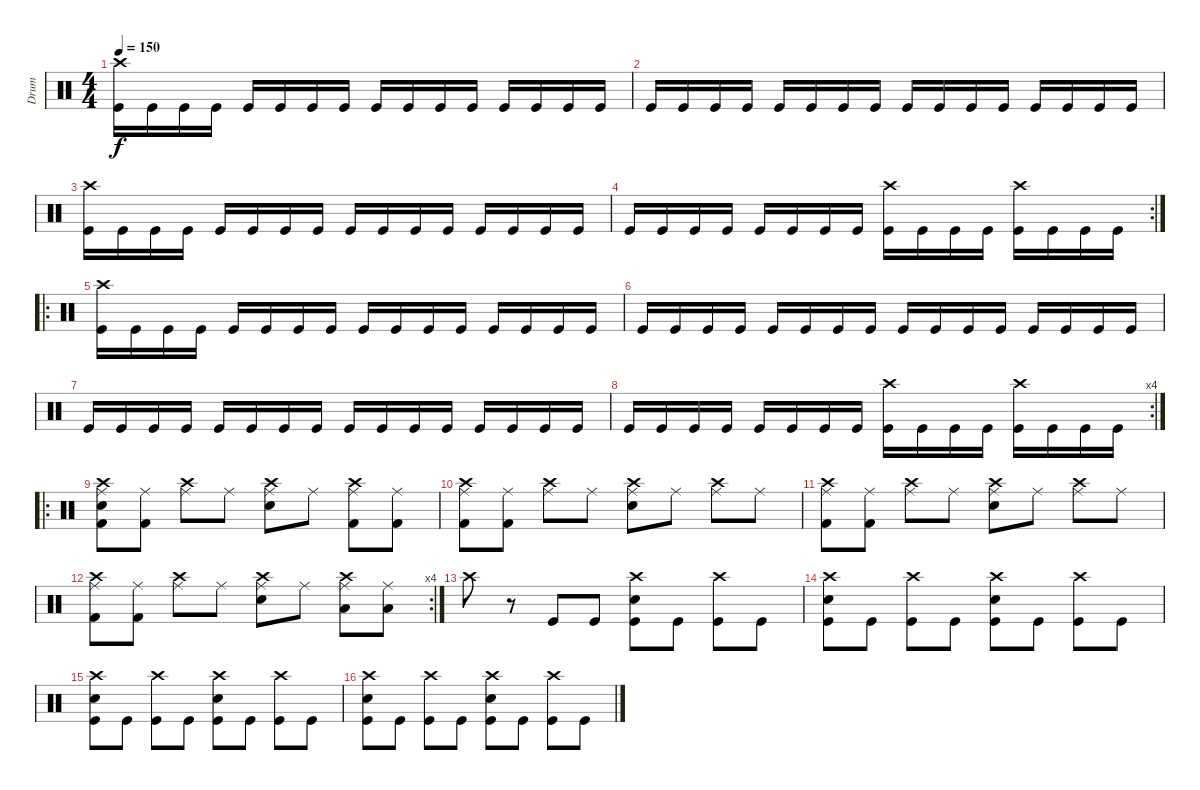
\track ("Drum" "Drum") {instrument percussion}
\staff {score}
\articulation defaults
\ts (4 4)
\tempo 150
\clef neutral
\ks c
("Crash high (hit)" "Kick (hit)").16{dy f} "Kick (hit)".16 "Kick (hit)".16 "Kick (hit)".16 "Kick (hit)".16 "Kick (hit)".16 "Kick (hit)".16 "Kick (hit)".16 "Kick (hit)".16 "Kick (hit)".16 "Kick (hit)".16 "Kick (hit)".16 "Kick (hit)".16 "Kick (hit)".16 "Kick (hit)".16 "Kick (hit)".16 |
"Kick (hit)".16 "Kick (hit)".16 "Kick (hit)".16 "Kick (hit)".16 "Kick (hit)".16 "Kick (hit)".16 "Kick (hit)".16 "Kick (hit)".16 "Kick (hit)".16 "Kick (hit)".16 "Kick (hit)".16 "Kick (hit)".16 "Kick (hit)".16 "Kick (hit)".16 "Kick (hit)".16 "Kick (hit)".16 |
("Crash high (hit)" "Kick (hit)").16 "Kick (hit)".16 "Kick (hit)".16 "Kick (hit)".16 "Kick (hit)".16 "Kick (hit)".16 "Kick (hit)".16 "Kick (hit)".16 "Kick (hit)".16 "Kick (hit)".16 "Kick (hit)".16 "Kick (hit)".16 "Kick (hit)".16 "Kick (hit)".16 "Kick (hit)".16 "Kick (hit)".16 |
\rc 2 "Kick (hit)".16 "Kick (hit)".16 "Kick (hit)".16 "Kick (hit)".16 "Kick (hit)".16 "Kick (hit)".16 "Kick (hit)".16 "Kick (hit)".16
("Crash high (hit)" "Kick (hit)").16 "Kick (hit)".16 "Kick (hit)".16 "Kick (hit)".16 ("Crash high (hit)" "Kick (hit)").16 "Kick (hit)".16 "Kick (hit)".16 "Kick (hit)".16 |
\ro
("Crash high (hit)" "Kick (hit)").16 "Kick (hit)".16 "Kick (hit)".16 "Kick (hit)".16 "Kick (hit)".16 "Kick (hit)".16 "Kick (hit)".16 "Kick (hit)".16 "Kick (hit)".16 "Kick (hit)".16 "Kick (hit)".16 "Kick (hit)".16 "Kick (hit)".16 "Kick (hit)".16 "Kick (hit)".16 "Kick (hit)".16 |
"Kick (hit)".16 "Kick (hit)".16 "Kick (hit)".16 "Kick (hit)".16 "Kick (hit)".16 "Kick (hit)".16 "Kick (hit)".16 "Kick (hit)".16 "Kick (hit)".16 "Kick (hit)".16 "Kick (hit)".16 "Kick (hit)".16 "Kick (hit)".16 "Kick (hit)".16 "Kick (hit)".16 "Kick (hit)".16 |
"Kick (hit)".16 "Kick (hit)".16 "Kick (hit)".16 "Kick (hit)".16 "Kick (hit)".16 "Kick (hit)".16 "Kick (hit)".16 "Kick (hit)".16 "Kick (hit)".16 "Kick (hit)".16 "Kick (hit)".16 "Kick (hit)".16 "Kick (hit)".16 "Kick (hit)".16 "Kick (hit)".16 "Kick (hit)".16 |
\rc 4 "Kick (hit)".16 "Kick (hit)".16 "Kick (hit)".16 "Kick (hit)".16 "Kick (hit)".16 "Kick (hit)".16 "Kick (hit)".16 "Kick (hit)".16
("Crash high (hit)" "Kick (hit)").16 "Kick (hit)".16 "Kick (hit)".16 "Kick (hit)".16 ("Crash high (hit)" "Kick (hit)").16 "Kick (hit)".16 "Kick (hit)".16 "Kick (hit)".16 |
\ro
("Crash high (hit)" "Ride (middle)" "Snare (hit)" "Kick (hit) 2").8 ("Ride (middle)" "Kick (hit) 2").8 ("Crash high (hit)" "Ride (middle)").8 "Ride (middle)".8 ("Crash high (hit)" "Ride (middle)" "Electric Snare (hit)").8 "Ride (middle)".8 ("Crash high (hit)" "Ride (middle)" "Kick (hit) 2").8 ("Ride (middle)" "Kick (hit) 2").8 |
("Crash high (hit)" "Ride (middle)" "Kick (hit) 2").8 ("Ride (middle)" "Kick (hit) 2").8 ("Crash high (hit)" "Ride (middle)").8 "Ride (middle)".8 ("Crash high (hit)" "Ride (middle)" "Electric Snare (hit)").8 "Ride (middle)".8 ("Crash high (hit)" "Ride (middle)").8 "Ride (middle)".8 |
("Crash high (hit)" "Ride (middle)" "Kick (hit) 2").8 ("Ride (middle)" "Kick (hit) 2").8 ("Crash high (hit)" "Ride (middle)").8 "Ride (middle)".8 ("Crash high (hit)" "Ride (middle)" "Electric Snare (hit)").8 "Ride (middle)".8 ("Crash high (hit)" "Ride (middle)").8 "Ride (middle)".8 |
\rc 4
("Crash high (hit)" "Ride (middle)" "Kick (hit) 2").8 ("Ride (middle)" "Kick (hit) 2").8 ("Crash high (hit)" "Ride (middle)").8 "Ride (middle)".8 ("Crash high (hit)" "Ride (middle)" "Electric Snare (hit)").8 "Ride (middle)".8 ("Crash high (hit)" "Ride (middle)" "Low Tom (hit)").8 ("Ride (middle)" "Low Tom (hit)").8 |
"Crash high (hit)".8 r.8 "Kick (hit)".8 "Kick (hit)".8 ("Crash high (hit)" "Electric Snare (hit)" "Kick (hit)").8 "Kick (hit)".8 ("Crash high (hit)" "Kick (hit)").8 "Kick (hit)".8 |
("Crash high (hit)" "Electric Snare (hit)" "Kick (hit)").8 "Kick (hit)".8 ("Crash high (hit)" "Kick (hit)").8 "Kick (hit)".8 ("Crash high (hit)" "Electric Snare (hit)" "Kick (hit)").8 "Kick (hit)".8 ("Crash high (hit)" "Kick (hit)").8 "Kick (hit)".8 |
("Crash high (hit)" "Electric Snare (hit)" "Kick (hit)").8 "Kick (hit)".8 ("Crash high (hit)" "Kick (hit)").8 "Kick (hit)".8 ("Crash high (hit)" "Electric Snare (hit)" "Kick (hit)").8 "Kick (hit)".8 ("Crash high (hit)" "Kick (hit)").8 "Kick (hit)".8 |
("Crash high (hit)" "Electric Snare (hit)" "Kick (hit)").8 "Kick (hit)".8 ("Crash high (hit)" "Kick (hit)").8 "Kick (hit)".8 ("Crash high (hit)" "Electric Snare (hit)" "Kick (hit)").8 "Kick (hit)".8 ("Crash high (hit)" "Kick (hit)").8 "Kick (hit)".8
